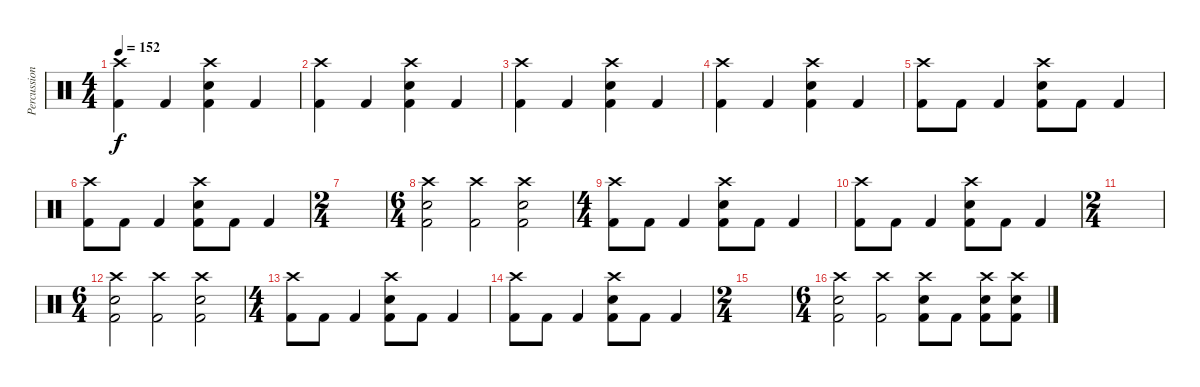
\track ("Percussion" "Percussion") {instrument percussion}
\staff {score}
\articulation defaults
\ts (4 4)
\tempo 152
\clef neutral
\ks c
("Crash high (hit)" "Kick (hit) 2").4{dy f} "Kick (hit) 2".4 ("Crash high (hit)" "Electric Snare (hit)" "Kick (hit) 2").4 "Kick (hit) 2".4 |
("Crash high (hit)" "Kick (hit) 2").4 "Kick (hit) 2".4 ("Crash high (hit)" "Electric Snare (hit)" "Kick (hit) 2").4 "Kick (hit) 2".4 |
("Crash high (hit)" "Kick (hit) 2").4 "Kick (hit) 2".4 ("Crash high (hit)" "Electric Snare (hit)" "Kick (hit) 2").4 "Kick (hit) 2".4 |
("Crash high (hit)" "Kick (hit) 2").4 "Kick (hit) 2".4 ("Crash high (hit)" "Electric Snare (hit)" "Kick (hit) 2").4 "Kick (hit) 2".4 |
("Crash high (hit)" "Kick (hit) 2").8 "Kick (hit) 2".8 "Kick (hit) 2".4 ("Crash high (hit)" "Electric Snare (hit)" "Kick (hit) 2").8 "Kick (hit) 2".8 "Kick (hit) 2".4 |
("Crash high (hit)" "Kick (hit) 2").8 "Kick (hit) 2".8 "Kick (hit) 2".4 ("Crash high (hit)" "Electric Snare (hit)" "Kick (hit) 2").8 "Kick (hit) 2".8 "Kick (hit) 2".4 |
\ts (2 4)
|
\ts (6 4)
("Crash high (hit)" "Electric Snare (hit)" "Kick (hit) 2").2 ("Crash high (hit)" "Kick (hit) 2").2 ("Crash high (hit)" "Electric Snare (hit)" "Kick (hit) 2").2 |
\ts (4 4)
("Crash high (hit)" "Kick (hit) 2").8 "Kick (hit) 2".8 "Kick (hit) 2".4 ("Crash high (hit)" "Electric Snare (hit)" "Kick (hit) 2").8 "Kick (hit) 2".8 "Kick (hit) 2".4 |
("Crash high (hit)" "Kick (hit) 2").8 "Kick (hit) 2".8 "Kick (hit) 2".4 ("Crash high (hit)" "Electric Snare (hit)" "Kick (hit) 2").8 "Kick (hit) 2".8 "Kick (hit) 2".4 |
\ts (2 4)
|
\ts (6 4)
("Crash high (hit)" "Electric Snare (hit)" "Kick (hit) 2").2 ("Crash high (hit)" "Kick (hit) 2").2 ("Crash high (hit)" "Electric Snare (hit)" "Kick (hit) 2").2 |
\ts (4 4)
("Crash high (hit)" "Kick (hit) 2").8 "Kick (hit) 2".8 "Kick (hit) 2".4 ("Crash high (hit)" "Electric Snare (hit)" "Kick (hit) 2").8 "Kick (hit) 2".8 "Kick (hit) 2".4 |
("Crash high (hit)" "Kick (hit) 2").8 "Kick (hit) 2".8 "Kick (hit) 2".4 ("Crash high (hit)" "Electric Snare (hit)" "Kick (hit) 2").8 "Kick (hit) 2".8 "Kick (hit) 2".4 |
\ts (2 4)
|
\ts (6 4)
("Crash high (hit)" "Electric Snare (hit)" "Kick (hit) 2").2 ("Crash high (hit)" "Kick (hit) 2").2 ("Crash high (hit)" "Electric Snare (hit)" "Kick (hit) 2").8 "Kick (hit) 2".8 ("Crash high (hit)" "Electric Snare (hit)" "Kick (hit) 2").8 ("Crash high (hit)" "Electric Snare (hit)" "Kick (hit) 2").8
